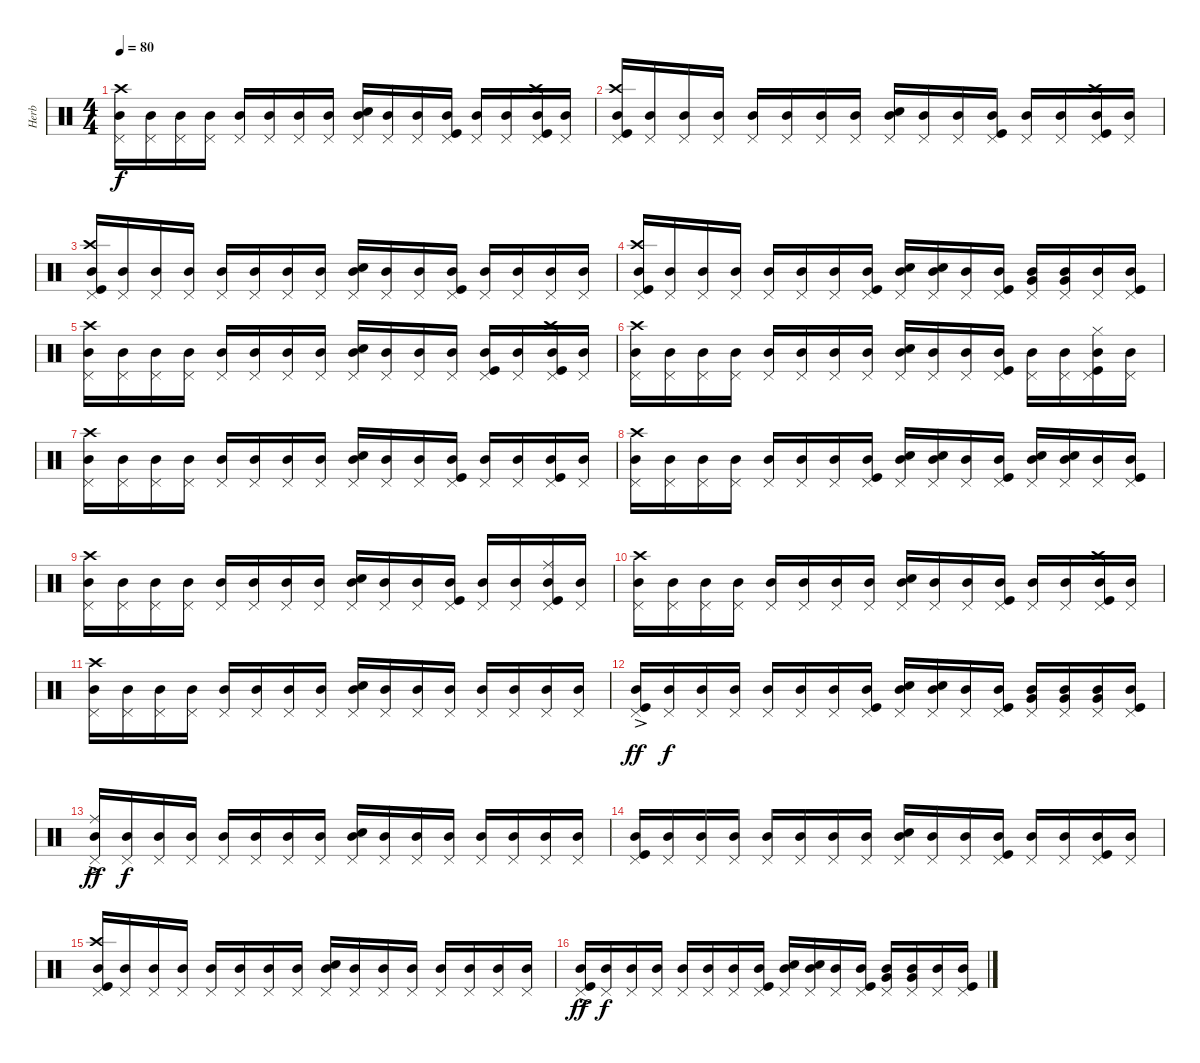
\track ("Herb" "Herb") {instrument percussion}
\staff {score}
\articulation defaults
\ts (4 4)
\tempo 80
\clef neutral
\ks c
("Pedal Hi-Hat (hit)" "Mid Tom (hit)" "Crash high (hit)").16{dy f} ("Pedal Hi-Hat (hit)" "Mid Tom (hit)").16 ("Pedal Hi-Hat (hit)" "Mid Tom (hit)").16 ("Pedal Hi-Hat (hit)" "Mid Tom (hit)").16 ("Pedal Hi-Hat (hit)" "Mid Tom (hit)").16 ("Pedal Hi-Hat (hit)" "Mid Tom (hit)").16 ("Pedal Hi-Hat (hit)" "Mid Tom (hit)").16 ("Pedal Hi-Hat (hit)" "Mid Tom (hit)").16 ("Pedal Hi-Hat (hit)" "Mid Tom (hit)" "Snare (hit) 2").16 ("Pedal Hi-Hat (hit)" "Mid Tom (hit)").16 ("Pedal Hi-Hat (hit)" "Mid Tom (hit)").16 ("Pedal Hi-Hat (hit)" "Mid Tom (hit)" "Kick (hit)").16 ("Pedal Hi-Hat (hit)" "Mid Tom (hit)").16 ("Pedal Hi-Hat (hit)" "Mid Tom (hit)").16 ("Pedal Hi-Hat (hit)" "Mid Tom (hit)" "Crash high (hit)" "Kick (hit)").16 ("Pedal Hi-Hat (hit)" "Mid Tom (hit)").16 |
("Pedal Hi-Hat (hit)" "Mid Tom (hit)" "Crash high (hit)" "Kick (hit)").16 ("Pedal Hi-Hat (hit)" "Mid Tom (hit)").16 ("Pedal Hi-Hat (hit)" "Mid Tom (hit)").16 ("Pedal Hi-Hat (hit)" "Mid Tom (hit)").16 ("Pedal Hi-Hat (hit)" "Mid Tom (hit)").16 ("Pedal Hi-Hat (hit)" "Mid Tom (hit)").16 ("Pedal Hi-Hat (hit)" "Mid Tom (hit)").16 ("Pedal Hi-Hat (hit)" "Mid Tom (hit)").16 ("Pedal Hi-Hat (hit)" "Mid Tom (hit)" "Snare (hit) 2").16 ("Pedal Hi-Hat (hit)" "Mid Tom (hit)").16 ("Pedal Hi-Hat (hit)" "Mid Tom (hit)").16 ("Pedal Hi-Hat (hit)" "Mid Tom (hit)" "Kick (hit)").16 ("Pedal Hi-Hat (hit)" "Mid Tom (hit)").16 ("Pedal Hi-Hat (hit)" "Mid Tom (hit)").16 ("Pedal Hi-Hat (hit)" "Mid Tom (hit)" "Crash high (hit)" "Kick (hit)").16 ("Pedal Hi-Hat (hit)" "Mid Tom (hit)").16 |
("Pedal Hi-Hat (hit)" "Mid Tom (hit)" "Crash high (hit)" "Kick (hit)").16 ("Pedal Hi-Hat (hit)" "Mid Tom (hit)").16 ("Pedal Hi-Hat (hit)" "Mid Tom (hit)").16 ("Pedal Hi-Hat (hit)" "Mid Tom (hit)").16 ("Pedal Hi-Hat (hit)" "Mid Tom (hit)").16 ("Pedal Hi-Hat (hit)" "Mid Tom (hit)").16 ("Pedal Hi-Hat (hit)" "Mid Tom (hit)").16 ("Pedal Hi-Hat (hit)" "Mid Tom (hit)").16 ("Pedal Hi-Hat (hit)" "Mid Tom (hit)" "Snare (hit) 2").16 ("Pedal Hi-Hat (hit)" "Mid Tom (hit)").16 ("Pedal Hi-Hat (hit)" "Mid Tom (hit)").16 ("Pedal Hi-Hat (hit)" "Mid Tom (hit)" "Kick (hit)").16 ("Pedal Hi-Hat (hit)" "Mid Tom (hit)").16 ("Pedal Hi-Hat (hit)" "Mid Tom (hit)").16 ("Pedal Hi-Hat (hit)" "Mid Tom (hit)").16 ("Pedal Hi-Hat (hit)" "Mid Tom (hit)").16 |
("Pedal Hi-Hat (hit)" "Mid Tom (hit)" "Crash high (hit)" "Kick (hit)").16 ("Pedal Hi-Hat (hit)" "Mid Tom (hit)").16 ("Pedal Hi-Hat (hit)" "Mid Tom (hit)").16 ("Pedal Hi-Hat (hit)" "Mid Tom (hit)").16 ("Pedal Hi-Hat (hit)" "Mid Tom (hit)").16 ("Pedal Hi-Hat (hit)" "Mid Tom (hit)").16 ("Pedal Hi-Hat (hit)" "Mid Tom (hit)").16 ("Pedal Hi-Hat (hit)" "Mid Tom (hit)" "Kick (hit)").16 ("Pedal Hi-Hat (hit)" "Mid Tom (hit)" "Snare (hit) 2").16 ("Pedal Hi-Hat (hit)" "Mid Tom (hit)" "Snare (hit) 2").16 ("Pedal Hi-Hat (hit)" "Mid Tom (hit)").16 ("Pedal Hi-Hat (hit)" "Mid Tom (hit)" "Kick (hit)").16 ("Pedal Hi-Hat (hit)" "Mid Tom (hit)" "Very Low Tom (hit)").16 ("Pedal Hi-Hat (hit)" "Mid Tom (hit)" "Very Low Tom (hit)").16 ("Pedal Hi-Hat (hit)" "Mid Tom (hit)").16 ("Pedal Hi-Hat (hit)" "Mid Tom (hit)" "Kick (hit)").16 |
("Pedal Hi-Hat (hit)" "Mid Tom (hit)" "Crash high (hit)").16 ("Pedal Hi-Hat (hit)" "Mid Tom (hit)").16 ("Pedal Hi-Hat (hit)" "Mid Tom (hit)").16 ("Pedal Hi-Hat (hit)" "Mid Tom (hit)").16 ("Pedal Hi-Hat (hit)" "Mid Tom (hit)").16 ("Pedal Hi-Hat (hit)" "Mid Tom (hit)").16 ("Pedal Hi-Hat (hit)" "Mid Tom (hit)").16 ("Pedal Hi-Hat (hit)" "Mid Tom (hit)").16 ("Pedal Hi-Hat (hit)" "Mid Tom (hit)" "Snare (hit) 2").16 ("Pedal Hi-Hat (hit)" "Mid Tom (hit)").16 ("Pedal Hi-Hat (hit)" "Mid Tom (hit)").16 ("Pedal Hi-Hat (hit)" "Mid Tom (hit)").16 ("Pedal Hi-Hat (hit)" "Mid Tom (hit)" "Kick (hit)").16 ("Pedal Hi-Hat (hit)" "Mid Tom (hit)").16 ("Pedal Hi-Hat (hit)" "Mid Tom (hit)" "Crash high (hit)" "Kick (hit)").16 ("Pedal Hi-Hat (hit)" "Mid Tom (hit)").16 |
("Pedal Hi-Hat (hit)" "Mid Tom (hit)" "Crash high (hit)").16 ("Pedal Hi-Hat (hit)" "Mid Tom (hit)").16 ("Pedal Hi-Hat (hit)" "Mid Tom (hit)").16 ("Pedal Hi-Hat (hit)" "Mid Tom (hit)").16 ("Pedal Hi-Hat (hit)" "Mid Tom (hit)").16 ("Pedal Hi-Hat (hit)" "Mid Tom (hit)").16 ("Pedal Hi-Hat (hit)" "Mid Tom (hit)").16 ("Pedal Hi-Hat (hit)" "Mid Tom (hit)").16 ("Pedal Hi-Hat (hit)" "Mid Tom (hit)" "Snare (hit) 2").16 ("Pedal Hi-Hat (hit)" "Mid Tom (hit)").16 ("Pedal Hi-Hat (hit)" "Mid Tom (hit)").16 ("Pedal Hi-Hat (hit)" "Mid Tom (hit)" "Kick (hit)").16 ("Pedal Hi-Hat (hit)" "Mid Tom (hit)").16 ("Pedal Hi-Hat (hit)" "Mid Tom (hit)").16 ("Pedal Hi-Hat (hit)" "Mid Tom (hit)" "Hi-Hat (closed)" "Kick (hit)").16 ("Pedal Hi-Hat (hit)" "Mid Tom (hit)").16 |
("Pedal Hi-Hat (hit)" "Mid Tom (hit)" "Crash high (hit)").16 ("Pedal Hi-Hat (hit)" "Mid Tom (hit)").16 ("Pedal Hi-Hat (hit)" "Mid Tom (hit)").16 ("Pedal Hi-Hat (hit)" "Mid Tom (hit)").16 ("Pedal Hi-Hat (hit)" "Mid Tom (hit)").16 ("Pedal Hi-Hat (hit)" "Mid Tom (hit)").16 ("Pedal Hi-Hat (hit)" "Mid Tom (hit)").16 ("Pedal Hi-Hat (hit)" "Mid Tom (hit)").16 ("Pedal Hi-Hat (hit)" "Mid Tom (hit)" "Snare (hit) 2").16 ("Pedal Hi-Hat (hit)" "Mid Tom (hit)").16 ("Pedal Hi-Hat (hit)" "Mid Tom (hit)").16 ("Pedal Hi-Hat (hit)" "Mid Tom (hit)" "Kick (hit)").16 ("Pedal Hi-Hat (hit)" "Mid Tom (hit)").16 ("Pedal Hi-Hat (hit)" "Mid Tom (hit)").16 ("Pedal Hi-Hat (hit)" "Mid Tom (hit)" "Kick (hit)").16 ("Pedal Hi-Hat (hit)" "Mid Tom (hit)").16 |
("Pedal Hi-Hat (hit)" "Mid Tom (hit)" "Crash high (hit)").16 ("Pedal Hi-Hat (hit)" "Mid Tom (hit)").16 ("Pedal Hi-Hat (hit)" "Mid Tom (hit)").16 ("Pedal Hi-Hat (hit)" "Mid Tom (hit)").16 ("Pedal Hi-Hat (hit)" "Mid Tom (hit)").16 ("Pedal Hi-Hat (hit)" "Mid Tom (hit)").16 ("Pedal Hi-Hat (hit)" "Mid Tom (hit)").16 ("Pedal Hi-Hat (hit)" "Mid Tom (hit)" "Kick (hit)").16 ("Pedal Hi-Hat (hit)" "Mid Tom (hit)" "Snare (hit) 2").16 ("Pedal Hi-Hat (hit)" "Mid Tom (hit)" "Snare (hit) 2").16 ("Pedal Hi-Hat (hit)" "Mid Tom (hit)").16 ("Pedal Hi-Hat (hit)" "Mid Tom (hit)" "Kick (hit)").16 ("Pedal Hi-Hat (hit)" "Mid Tom (hit)" "Snare (hit) 2").16 ("Pedal Hi-Hat (hit)" "Mid Tom (hit)" "Snare (hit) 2").16 ("Pedal Hi-Hat (hit)" "Mid Tom (hit)").16 ("Pedal Hi-Hat (hit)" "Mid Tom (hit)" "Kick (hit)").16 |
("Pedal Hi-Hat (hit)" "Mid Tom (hit)" "Crash high (hit)").16 ("Pedal Hi-Hat (hit)" "Mid Tom (hit)").16 ("Pedal Hi-Hat (hit)" "Mid Tom (hit)").16 ("Pedal Hi-Hat (hit)" "Mid Tom (hit)").16 ("Pedal Hi-Hat (hit)" "Mid Tom (hit)").16 ("Pedal Hi-Hat (hit)" "Mid Tom (hit)").16 ("Pedal Hi-Hat (hit)" "Mid Tom (hit)").16 ("Pedal Hi-Hat (hit)" "Mid Tom (hit)").16 ("Pedal Hi-Hat (hit)" "Mid Tom (hit)" "Snare (hit) 2").16 ("Pedal Hi-Hat (hit)" "Mid Tom (hit)").16 ("Pedal Hi-Hat (hit)" "Mid Tom (hit)").16 ("Pedal Hi-Hat (hit)" "Mid Tom (hit)" "Kick (hit)").16 ("Pedal Hi-Hat (hit)" "Mid Tom (hit)").16 ("Pedal Hi-Hat (hit)" "Mid Tom (hit)").16 ("Pedal Hi-Hat (hit)" "Mid Tom (hit)" "Ride (middle)" "Kick (hit)").16 ("Pedal Hi-Hat (hit)" "Mid Tom (hit)").16 |
("Pedal Hi-Hat (hit)" "Mid Tom (hit)" "Crash high (hit)").16 ("Pedal Hi-Hat (hit)" "Mid Tom (hit)").16 ("Pedal Hi-Hat (hit)" "Mid Tom (hit)").16 ("Pedal Hi-Hat (hit)" "Mid Tom (hit)").16 ("Pedal Hi-Hat (hit)" "Mid Tom (hit)").16 ("Pedal Hi-Hat (hit)" "Mid Tom (hit)").16 ("Pedal Hi-Hat (hit)" "Mid Tom (hit)").16 ("Pedal Hi-Hat (hit)" "Mid Tom (hit)").16 ("Pedal Hi-Hat (hit)" "Mid Tom (hit)" "Snare (hit) 2").16 ("Pedal Hi-Hat (hit)" "Mid Tom (hit)").16 ("Pedal Hi-Hat (hit)" "Mid Tom (hit)").16 ("Pedal Hi-Hat (hit)" "Mid Tom (hit)" "Kick (hit)").16 ("Pedal Hi-Hat (hit)" "Mid Tom (hit)").16 ("Pedal Hi-Hat (hit)" "Mid Tom (hit)").16 ("Pedal Hi-Hat (hit)" "Mid Tom (hit)" "Crash high (hit)" "Kick (hit)").16 ("Pedal Hi-Hat (hit)" "Mid Tom (hit)").16 |
("Pedal Hi-Hat (hit)" "Mid Tom (hit)" "Crash high (hit)").16 ("Pedal Hi-Hat (hit)" "Mid Tom (hit)").16 ("Pedal Hi-Hat (hit)" "Mid Tom (hit)").16 ("Pedal Hi-Hat (hit)" "Mid Tom (hit)").16 ("Pedal Hi-Hat (hit)" "Mid Tom (hit)").16 ("Pedal Hi-Hat (hit)" "Mid Tom (hit)").16 ("Pedal Hi-Hat (hit)" "Mid Tom (hit)").16 ("Pedal Hi-Hat (hit)" "Mid Tom (hit)").16 ("Pedal Hi-Hat (hit)" "Mid Tom (hit)" "Snare (hit) 2").16 ("Pedal Hi-Hat (hit)" "Mid Tom (hit)").16 ("Pedal Hi-Hat (hit)" "Mid Tom (hit)").16 ("Pedal Hi-Hat (hit)" "Mid Tom (hit)").16 ("Pedal Hi-Hat (hit)" "Mid Tom (hit)").16 ("Pedal Hi-Hat (hit)" "Mid Tom (hit)").16 ("Pedal Hi-Hat (hit)" "Mid Tom (hit)").16 ("Pedal Hi-Hat (hit)" "Mid Tom (hit)").16 |
("Pedal Hi-Hat (hit)" "Mid Tom (hit)" "Kick (hit)"{ac}).16{dy ff} ("Pedal Hi-Hat (hit)" "Mid Tom (hit)").16{dy f} ("Pedal Hi-Hat (hit)" "Mid Tom (hit)").16 ("Pedal Hi-Hat (hit)" "Mid Tom (hit)").16 ("Pedal Hi-Hat (hit)" "Mid Tom (hit)").16 ("Pedal Hi-Hat (hit)" "Mid Tom (hit)").16 ("Pedal Hi-Hat (hit)" "Mid Tom (hit)").16 ("Pedal Hi-Hat (hit)" "Mid Tom (hit)" "Kick (hit)").16 ("Pedal Hi-Hat (hit)" "Mid Tom (hit)" "Snare (hit) 2").16 ("Pedal Hi-Hat (hit)" "Mid Tom (hit)" "Snare (hit) 2").16 ("Pedal Hi-Hat (hit)" "Mid Tom (hit)").16 ("Pedal Hi-Hat (hit)" "Mid Tom (hit)" "Kick (hit)").16 ("Pedal Hi-Hat (hit)" "Mid Tom (hit)" "Very Low Tom (hit)").16 ("Pedal Hi-Hat (hit)" "Mid Tom (hit)" "Very Low Tom (hit)").16 ("Pedal Hi-Hat (hit)" "Mid Tom (hit)" "Very Low Tom (hit)").16 ("Pedal Hi-Hat (hit)" "Mid Tom (hit)" "Kick (hit)").16 |
("Pedal Hi-Hat (hit)" "Mid Tom (hit)" "Ride (middle)"{ac}).16{dy ff} ("Pedal Hi-Hat (hit)" "Mid Tom (hit)").16{dy f} ("Pedal Hi-Hat (hit)" "Mid Tom (hit)").16 ("Pedal Hi-Hat (hit)" "Mid Tom (hit)").16 ("Pedal Hi-Hat (hit)" "Mid Tom (hit)").16 ("Pedal Hi-Hat (hit)" "Mid Tom (hit)").16 ("Pedal Hi-Hat (hit)" "Mid Tom (hit)").16 ("Pedal Hi-Hat (hit)" "Mid Tom (hit)").16 ("Pedal Hi-Hat (hit)" "Mid Tom (hit)" "Snare (hit) 2").16 ("Pedal Hi-Hat (hit)" "Mid Tom (hit)").16 ("Pedal Hi-Hat (hit)" "Mid Tom (hit)").16 ("Pedal Hi-Hat (hit)" "Mid Tom (hit)").16 ("Pedal Hi-Hat (hit)" "Mid Tom (hit)").16 ("Pedal Hi-Hat (hit)" "Mid Tom (hit)").16 ("Pedal Hi-Hat (hit)" "Mid Tom (hit)").16 ("Pedal Hi-Hat (hit)" "Mid Tom (hit)").16 |
("Pedal Hi-Hat (hit)" "Mid Tom (hit)" "Kick (hit)").16 ("Pedal Hi-Hat (hit)" "Mid Tom (hit)").16 ("Pedal Hi-Hat (hit)" "Mid Tom (hit)").16 ("Pedal Hi-Hat (hit)" "Mid Tom (hit)").16 ("Pedal Hi-Hat (hit)" "Mid Tom (hit)").16 ("Pedal Hi-Hat (hit)" "Mid Tom (hit)").16 ("Pedal Hi-Hat (hit)" "Mid Tom (hit)").16 ("Pedal Hi-Hat (hit)" "Mid Tom (hit)").16 ("Pedal Hi-Hat (hit)" "Mid Tom (hit)" "Snare (hit) 2").16 ("Pedal Hi-Hat (hit)" "Mid Tom (hit)").16 ("Pedal Hi-Hat (hit)" "Mid Tom (hit)").16 ("Pedal Hi-Hat (hit)" "Mid Tom (hit)" "Kick (hit)").16 ("Pedal Hi-Hat (hit)" "Mid Tom (hit)").16 ("Pedal Hi-Hat (hit)" "Mid Tom (hit)").16 ("Pedal Hi-Hat (hit)" "Mid Tom (hit)" "Kick (hit)").16 ("Pedal Hi-Hat (hit)" "Mid Tom (hit)").16 |
("Pedal Hi-Hat (hit)" "Mid Tom (hit)" "Crash high (hit)" "Kick (hit)").16 ("Pedal Hi-Hat (hit)" "Mid Tom (hit)").16 ("Pedal Hi-Hat (hit)" "Mid Tom (hit)").16 ("Pedal Hi-Hat (hit)" "Mid Tom (hit)").16 ("Pedal Hi-Hat (hit)" "Mid Tom (hit)").16 ("Pedal Hi-Hat (hit)" "Mid Tom (hit)").16 ("Pedal Hi-Hat (hit)" "Mid Tom (hit)").16 ("Pedal Hi-Hat (hit)" "Mid Tom (hit)").16 ("Pedal Hi-Hat (hit)" "Mid Tom (hit)" "Snare (hit) 2").16 ("Pedal Hi-Hat (hit)" "Mid Tom (hit)").16 ("Pedal Hi-Hat (hit)" "Mid Tom (hit)").16 ("Pedal Hi-Hat (hit)" "Mid Tom (hit)").16 ("Pedal Hi-Hat (hit)" "Mid Tom (hit)").16 ("Pedal Hi-Hat (hit)" "Mid Tom (hit)").16 ("Pedal Hi-Hat (hit)" "Mid Tom (hit)").16 ("Pedal Hi-Hat (hit)" "Mid Tom (hit)").16 |
("Pedal Hi-Hat (hit)" "Mid Tom (hit)" "Kick (hit)"{ac}).16{dy ff} ("Pedal Hi-Hat (hit)" "Mid Tom (hit)").16{dy f} ("Pedal Hi-Hat (hit)" "Mid Tom (hit)").16 ("Pedal Hi-Hat (hit)" "Mid Tom (hit)").16 ("Pedal Hi-Hat (hit)" "Mid Tom (hit)").16 ("Pedal Hi-Hat (hit)" "Mid Tom (hit)").16 ("Pedal Hi-Hat (hit)" "Mid Tom (hit)").16 ("Pedal Hi-Hat (hit)" "Mid Tom (hit)" "Kick (hit)").16 ("Pedal Hi-Hat (hit)" "Mid Tom (hit)" "Snare (hit) 2").16 ("Pedal Hi-Hat (hit)" "Mid Tom (hit)" "Snare (hit) 2").16 ("Pedal Hi-Hat (hit)" "Mid Tom (hit)").16 ("Pedal Hi-Hat (hit)" "Mid Tom (hit)" "Kick (hit)").16 ("Pedal Hi-Hat (hit)" "Mid Tom (hit)" "Very Low Tom (hit)").16 ("Pedal Hi-Hat (hit)" "Mid Tom (hit)" "Very Low Tom (hit)").16 ("Pedal Hi-Hat (hit)" "Mid Tom (hit)").16 ("Pedal Hi-Hat (hit)" "Mid Tom (hit)" "Kick (hit)").16
